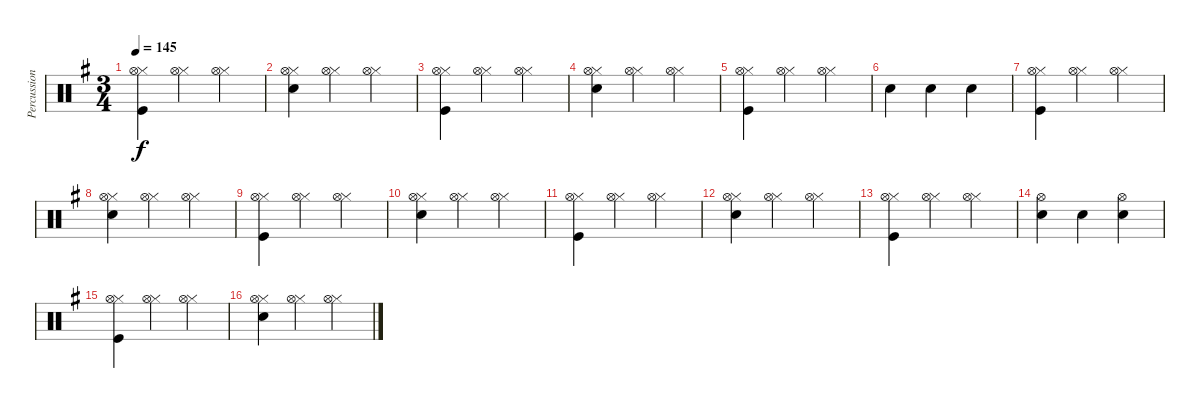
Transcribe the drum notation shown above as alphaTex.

\track ("Percussioni" "Percussion") {instrument percussion}
\staff {score}
\articulation defaults
\ts (3 4)
\tempo 145
\clef neutral
\ks g
("Hi-Hat (closed)" "Kick (hit)" "Hi-Hat (open)").4{dy f} ("Hi-Hat (closed)" "Hi-Hat (open)").4 ("Hi-Hat (closed)" "Hi-Hat (open)").4 |
("Hi-Hat (closed)" "Snare (hit) 2" "Hi-Hat (open)").4 ("Hi-Hat (closed)" "Hi-Hat (open)").4 ("Hi-Hat (closed)" "Hi-Hat (open)").4 |
("Hi-Hat (closed)" "Kick (hit)" "Hi-Hat (open)").4 ("Hi-Hat (closed)" "Hi-Hat (open)").4 ("Hi-Hat (closed)" "Hi-Hat (open)").4 |
("Hi-Hat (closed)" "Snare (hit) 2" "Hi-Hat (open)").4 ("Hi-Hat (closed)" "Hi-Hat (open)").4 ("Hi-Hat (closed)" "Hi-Hat (open)").4 |
("Hi-Hat (closed)" "Kick (hit)" "Hi-Hat (open)").4 ("Hi-Hat (closed)" "Hi-Hat (open)").4 ("Hi-Hat (closed)" "Hi-Hat (open)").4 |
"Electric Snare (hit)".4 "Electric Snare (hit)".4 "Electric Snare (hit)".4 |
("Hi-Hat (closed)" "Kick (hit)" "Hi-Hat (open)").4 ("Hi-Hat (closed)" "Hi-Hat (open)").4 ("Hi-Hat (closed)" "Hi-Hat (open)").4 |
("Hi-Hat (closed)" "Snare (hit) 2" "Hi-Hat (open)").4 ("Hi-Hat (closed)" "Hi-Hat (open)").4 ("Hi-Hat (closed)" "Hi-Hat (open)").4 |
("Hi-Hat (closed)" "Kick (hit)" "Hi-Hat (open)").4 ("Hi-Hat (closed)" "Hi-Hat (open)").4 ("Hi-Hat (closed)" "Hi-Hat (open)").4 |
("Hi-Hat (closed)" "Snare (hit) 2" "Hi-Hat (open)").4 ("Hi-Hat (closed)" "Hi-Hat (open)").4 ("Hi-Hat (closed)" "Hi-Hat (open)").4 |
("Hi-Hat (closed)" "Kick (hit)" "Hi-Hat (open)").4 ("Hi-Hat (closed)" "Hi-Hat (open)").4 ("Hi-Hat (closed)" "Hi-Hat (open)").4 |
("Hi-Hat (closed)" "Snare (hit) 2" "Hi-Hat (open)").4 ("Hi-Hat (closed)" "Hi-Hat (open)").4 ("Hi-Hat (closed)" "Hi-Hat (open)").4 |
("Hi-Hat (closed)" "Kick (hit)" "Hi-Hat (open)").4 ("Hi-Hat (closed)" "Hi-Hat (open)").4 ("Hi-Hat (closed)" "Hi-Hat (open)").4 |
("Electric Snare (hit)" "Hi-Hat (open)").4 "Electric Snare (hit)".4 ("Electric Snare (hit)" "Hi-Hat (open)").4 |
("Hi-Hat (closed)" "Kick (hit)" "Hi-Hat (open)").4 ("Hi-Hat (closed)" "Hi-Hat (open)").4 ("Hi-Hat (closed)" "Hi-Hat (open)").4 |
("Hi-Hat (closed)" "Snare (hit) 2" "Hi-Hat (open)").4 ("Hi-Hat (closed)" "Hi-Hat (open)").4 ("Hi-Hat (closed)" "Hi-Hat (open)").4
